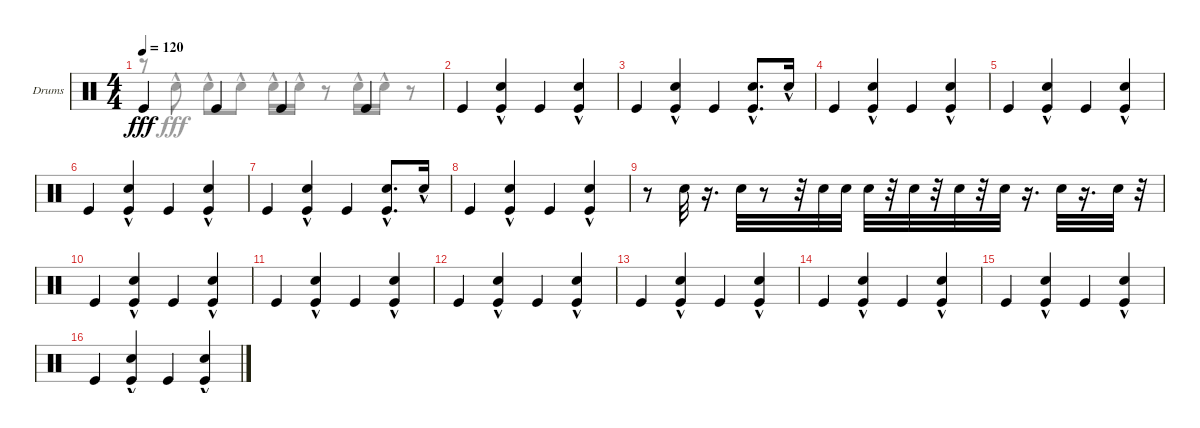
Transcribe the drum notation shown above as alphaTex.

\defaultSystemsLayout 4
\bracketExtendMode nobrackets
\firstSystemTrackNameOrientation horizontal
\otherSystemsTrackNameOrientation horizontal
\track ("Drumkit" "Drums") {instrument percussion}
\staff {score}
\articulation defaults
\voice
\ts (4 4)
\tempo 120
\clef neutral
\scale
0.333333
\ks c "Kick (hit)".4{dy fff} "Kick (hit)".4 "Kick (hit)".4 "Kick (hit)".4
|
\scale
0.333333 "Kick (hit)".4 ("Kick (hit)" "Snare (hit) 2"{hac}).4 "Kick (hit)".4 ("Kick (hit)" "Snare (hit) 2"{hac}).4 |
\scale
0.333333 "Kick (hit)".4 ("Kick (hit)" "Snare (hit) 2"{hac}).4 "Kick (hit)".4 ("Kick (hit)" "Snare (hit) 2"{hac}).8{d} "Snare (hit) 2"{hac}.16 |
\scale
0.333333 "Kick (hit)".4 ("Kick (hit)" "Snare (hit) 2"{hac}).4 "Kick (hit)".4 ("Kick (hit)" "Snare (hit) 2"{hac}).4 |
\scale
0.333333 "Kick (hit)".4 ("Kick (hit)" "Snare (hit) 2"{hac}).4 "Kick (hit)".4 ("Kick (hit)" "Snare (hit) 2"{hac}).4 |
\scale
0.333333 "Kick (hit)".4 ("Kick (hit)" "Snare (hit) 2"{hac}).4 "Kick (hit)".4 ("Kick (hit)" "Snare (hit) 2"{hac}).4 |
\scale
0.333333 "Kick (hit)".4 ("Kick (hit)" "Snare (hit) 2"{hac}).4 "Kick (hit)".4 ("Kick (hit)" "Snare (hit) 2"{hac}).8{d} "Snare (hit) 2"{hac}.16 |
\scale
0.333333 "Kick (hit)".4 ("Kick (hit)" "Snare (hit) 2"{hac}).4 "Kick (hit)".4 ("Kick (hit)" "Snare (hit) 2"{hac}).4 |
\scale
0.333333 r.8 "Snare (hit) 2".32 r.16{d} "Snare (hit) 2".32 r.8 r.32 "Snare (hit) 2".32 "Snare (hit) 2".32 "Snare (hit) 2".32 r.32 "Snare (hit) 2".32 r.32 "Snare (hit) 2".32 r.32 "Snare (hit) 2".32 r.16{d} "Snare (hit) 2".32 r.16{d} "Snare (hit) 2".32 r.32 |
"Kick (hit)".4 ("Kick (hit)" "Snare (hit) 2"{hac}).4 "Kick (hit)".4 ("Kick (hit)" "Snare (hit) 2"{hac}).4 |
"Kick (hit)".4 ("Kick (hit)" "Snare (hit) 2"{hac}).4 "Kick (hit)".4 ("Kick (hit)" "Snare (hit) 2"{hac}).4 |
"Kick (hit)".4 ("Kick (hit)" "Snare (hit) 2"{hac}).4 "Kick (hit)".4 ("Kick (hit)" "Snare (hit) 2"{hac}).4 |
"Kick (hit)".4 ("Kick (hit)" "Snare (hit) 2"{hac}).4 "Kick (hit)".4 ("Kick (hit)" "Snare (hit) 2"{hac}).4 |
"Kick (hit)".4 ("Kick (hit)" "Snare (hit) 2"{hac}).4 "Kick (hit)".4 ("Kick (hit)" "Snare (hit) 2"{hac}).4 |
"Kick (hit)".4 ("Kick (hit)" "Snare (hit) 2"{hac}).4 "Kick (hit)".4 ("Kick (hit)" "Snare (hit) 2"{hac}).4 |
"Kick (hit)".4 ("Kick (hit)" "Snare (hit) 2"{hac}).4 "Kick (hit)".4 ("Kick (hit)" "Snare (hit) 2"{hac}).4
\voice
\clef neutral
\ottava regular
\simile none
\scale
0.333333
\ks c
r.8{dy fff} "Snare (hit) 2"{hac}.8 "Snare (hit) 2"{hac}.8 "Snare (hit) 2"{hac}.8 "Snare (hit) 2"{hac}.16 "Snare (hit) 2"{hac}.16 r.8 "Snare (hit) 2"{hac}.16 "Snare (hit) 2"{hac}.16 r.8 |
\scale
0.333333 |
\scale
0.333333 |
\scale
0.333333 |
\scale
0.333333 |
\scale
0.333333 |
\scale
0.333333 |
\scale
0.333333 |
\scale
0.333333 |
|
|
|
|
|
|
